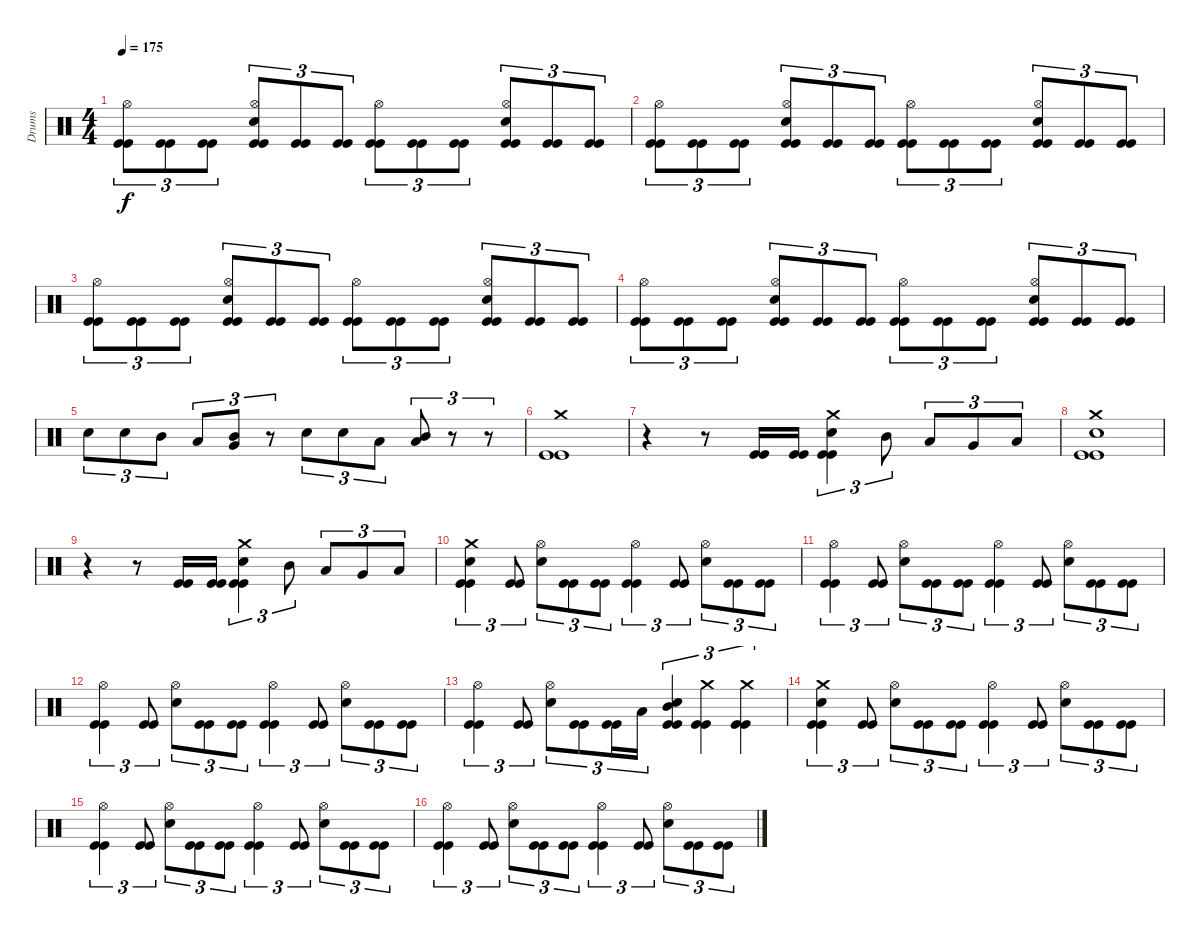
\track ("Drums" "Drums") {instrument percussion}
\staff {score}
\articulation defaults
\ts (4 4)
\tempo 175
\clef neutral
\ks c
("Kick (hit)" "Kick (hit)" "Hi-Hat (open)").8{tu (3 2) dy f} ("Kick (hit)" "Kick (hit)").8{tu (3 2)} ("Kick (hit)" "Kick (hit)").8{tu (3 2)} ("Kick (hit)" "Kick (hit)" "Snare (hit) 2" "Hi-Hat (open)").8{tu (3 2)} ("Kick (hit)" "Kick (hit)").8{tu (3 2)} ("Kick (hit)" "Kick (hit)").8{tu (3 2)} ("Kick (hit)" "Kick (hit)" "Hi-Hat (open)").8{tu (3 2)} ("Kick (hit)" "Kick (hit)").8{tu (3 2)} ("Kick (hit)" "Kick (hit)").8{tu (3 2)} ("Kick (hit)" "Kick (hit)" "Snare (hit) 2" "Hi-Hat (open)").8{tu (3 2)} ("Kick (hit)" "Kick (hit)").8{tu (3 2)} ("Kick (hit)" "Kick (hit)").8{tu (3 2)} |
("Kick (hit)" "Kick (hit)" "Hi-Hat (open)").8{tu (3 2)} ("Kick (hit)" "Kick (hit)").8{tu (3 2)} ("Kick (hit)" "Kick (hit)").8{tu (3 2)} ("Kick (hit)" "Kick (hit)" "Snare (hit) 2" "Hi-Hat (open)").8{tu (3 2)} ("Kick (hit)" "Kick (hit)").8{tu (3 2)} ("Kick (hit)" "Kick (hit)").8{tu (3 2)} ("Kick (hit)" "Kick (hit)" "Hi-Hat (open)").8{tu (3 2)} ("Kick (hit)" "Kick (hit)").8{tu (3 2)} ("Kick (hit)" "Kick (hit)").8{tu (3 2)} ("Kick (hit)" "Kick (hit)" "Snare (hit) 2" "Hi-Hat (open)").8{tu (3 2)} ("Kick (hit)" "Kick (hit)").8{tu (3 2)} ("Kick (hit)" "Kick (hit)").8{tu (3 2)} |
("Kick (hit)" "Kick (hit)" "Hi-Hat (open)").8{tu (3 2)} ("Kick (hit)" "Kick (hit)").8{tu (3 2)} ("Kick (hit)" "Kick (hit)").8{tu (3 2)} ("Kick (hit)" "Kick (hit)" "Snare (hit) 2" "Hi-Hat (open)").8{tu (3 2)} ("Kick (hit)" "Kick (hit)").8{tu (3 2)} ("Kick (hit)" "Kick (hit)").8{tu (3 2)} ("Kick (hit)" "Kick (hit)" "Hi-Hat (open)").8{tu (3 2)} ("Kick (hit)" "Kick (hit)").8{tu (3 2)} ("Kick (hit)" "Kick (hit)").8{tu (3 2)} ("Kick (hit)" "Kick (hit)" "Snare (hit) 2" "Hi-Hat (open)").8{tu (3 2)} ("Kick (hit)" "Kick (hit)").8{tu (3 2)} ("Kick (hit)" "Kick (hit)").8{tu (3 2)} |
("Kick (hit)" "Kick (hit)" "Hi-Hat (open)").8{tu (3 2)} ("Kick (hit)" "Kick (hit)").8{tu (3 2)} ("Kick (hit)" "Kick (hit)").8{tu (3 2)} ("Kick (hit)" "Kick (hit)" "Snare (hit) 2" "Hi-Hat (open)").8{tu (3 2)} ("Kick (hit)" "Kick (hit)").8{tu (3 2)} ("Kick (hit)" "Kick (hit)").8{tu (3 2)} ("Kick (hit)" "Kick (hit)" "Hi-Hat (open)").8{tu (3 2)} ("Kick (hit)" "Kick (hit)").8{tu (3 2)} ("Kick (hit)" "Kick (hit)").8{tu (3 2)} ("Kick (hit)" "Kick (hit)" "Snare (hit) 2" "Hi-Hat (open)").8{tu (3 2)} ("Kick (hit)" "Kick (hit)").8{tu (3 2)} ("Kick (hit)" "Kick (hit)").8{tu (3 2)} |
"Snare (hit) 2".8{tu (3 2)} "Snare (hit) 2".8{tu (3 2)} "Mid Tom (hit)".8{tu (3 2)} "Low Tom (hit)".8{tu (3 2)} ("Very Low Tom (hit)" "Mid Tom (hit)").8{tu (3 2)} r.8{tu (3 2)} "Snare (hit) 2".8{tu (3 2)} "Snare (hit) 2".8{tu (3 2)} "Low Tom (hit)".8{tu (3 2)} ("Low Floor Tom (hit)" "Mid Tom (hit)").8{tu (3 2)} r.8{tu (3 2)} r.8{tu (3 2)} |
("Crash medium (hit)" "Kick (hit)" "Kick (hit)").1 |
r.4 r.8 ("Kick (hit)" "Kick (hit)").16 ("Kick (hit)" "Kick (hit)").16 ("Kick (hit)" "Kick (hit)" "Snare (hit) 2" "Crash medium (hit)").4{tu (3 2)} "Mid Tom (hit)".8{tu (3 2)} "Low Tom (hit)".8{tu (3 2)} "Very Low Tom (hit)".8{tu (3 2)} "Low Floor Tom (hit)".8{tu (3 2)} |
("Kick (hit)" "Kick (hit)" "Snare (hit) 2" "Crash medium (hit)").1 |
r.4 r.8 ("Kick (hit)" "Kick (hit)").16 ("Kick (hit)" "Kick (hit)").16 ("Kick (hit)" "Kick (hit)" "Snare (hit) 2" "Crash medium (hit)").4{tu (3 2)} "Mid Tom (hit)".8{tu (3 2)} "Low Tom (hit)".8{tu (3 2)} "Very Low Tom (hit)".8{tu (3 2)} "Low Floor Tom (hit)".8{tu (3 2)} |
("Kick (hit)" "Kick (hit)" "Snare (hit) 2" "Crash medium (hit)").4{tu (3 2)} ("Kick (hit)" "Kick (hit)").8{tu (3 2)} ("Snare (hit) 2" "Hi-Hat (open)").8{tu (3 2)} ("Kick (hit)" "Kick (hit)").8{tu (3 2)} ("Kick (hit)" "Kick (hit)").8{tu (3 2)} ("Kick (hit)" "Kick (hit)" "Hi-Hat (open)").4{tu (3 2)} ("Kick (hit)" "Kick (hit)").8{tu (3 2)} ("Snare (hit) 2" "Hi-Hat (open)").8{tu (3 2)} ("Kick (hit)" "Kick (hit)").8{tu (3 2)} ("Kick (hit)" "Kick (hit)").8{tu (3 2)} |
("Kick (hit)" "Kick (hit)" "Hi-Hat (open)").4{tu (3 2)} ("Kick (hit)" "Kick (hit)").8{tu (3 2)} ("Snare (hit) 2" "Hi-Hat (open)").8{tu (3 2)} ("Kick (hit)" "Kick (hit)").8{tu (3 2)} ("Kick (hit)" "Kick (hit)").8{tu (3 2)} ("Kick (hit)" "Kick (hit)" "Hi-Hat (open)").4{tu (3 2)} ("Kick (hit)" "Kick (hit)").8{tu (3 2)} ("Snare (hit) 2" "Hi-Hat (open)").8{tu (3 2)} ("Kick (hit)" "Kick (hit)").8{tu (3 2)} ("Kick (hit)" "Kick (hit)").8{tu (3 2)} |
("Kick (hit)" "Kick (hit)" "Hi-Hat (open)").4{tu (3 2)} ("Kick (hit)" "Kick (hit)").8{tu (3 2)} ("Snare (hit) 2" "Hi-Hat (open)").8{tu (3 2)} ("Kick (hit)" "Kick (hit)").8{tu (3 2)} ("Kick (hit)" "Kick (hit)").8{tu (3 2)} ("Kick (hit)" "Kick (hit)" "Hi-Hat (open)").4{tu (3 2)} ("Kick (hit)" "Kick (hit)").8{tu (3 2)} ("Snare (hit) 2" "Hi-Hat (open)").8{tu (3 2)} ("Kick (hit)" "Kick (hit)").8{tu (3 2)} ("Kick (hit)" "Kick (hit)").8{tu (3 2)} |
("Kick (hit)" "Kick (hit)" "Hi-Hat (open)").4{tu (3 2)} ("Kick (hit)" "Kick (hit)").8{tu (3 2)} ("Snare (hit) 2" "Hi-Hat (open)").8{tu (3 2)} ("Kick (hit)" "Kick (hit)").8{tu (3 2)} ("Kick (hit)" "Kick (hit)").16{tu (3 2)} "Low Floor Tom (hit)".16{tu (3 2)} ("Kick (hit)" "Kick (hit)" "Mid Tom (hit)" "Snare (hit) 2").4{tu (3 2)} ("Kick (hit)" "Kick (hit)" "Crash medium (hit)").4{tu (3 2)} ("Kick (hit)" "Kick (hit)" "Crash medium (hit)").4{tu (3 2)} |
("Kick (hit)" "Kick (hit)" "Snare (hit) 2" "Crash medium (hit)").4{tu (3 2)} ("Kick (hit)" "Kick (hit)").8{tu (3 2)} ("Snare (hit) 2" "Hi-Hat (open)").8{tu (3 2)} ("Kick (hit)" "Kick (hit)").8{tu (3 2)} ("Kick (hit)" "Kick (hit)").8{tu (3 2)} ("Kick (hit)" "Kick (hit)" "Hi-Hat (open)").4{tu (3 2)} ("Kick (hit)" "Kick (hit)").8{tu (3 2)} ("Snare (hit) 2" "Hi-Hat (open)").8{tu (3 2)} ("Kick (hit)" "Kick (hit)").8{tu (3 2)} ("Kick (hit)" "Kick (hit)").8{tu (3 2)} |
("Kick (hit)" "Kick (hit)" "Hi-Hat (open)").4{tu (3 2)} ("Kick (hit)" "Kick (hit)").8{tu (3 2)} ("Snare (hit) 2" "Hi-Hat (open)").8{tu (3 2)} ("Kick (hit)" "Kick (hit)").8{tu (3 2)} ("Kick (hit)" "Kick (hit)").8{tu (3 2)} ("Kick (hit)" "Kick (hit)" "Hi-Hat (open)").4{tu (3 2)} ("Kick (hit)" "Kick (hit)").8{tu (3 2)} ("Snare (hit) 2" "Hi-Hat (open)").8{tu (3 2)} ("Kick (hit)" "Kick (hit)").8{tu (3 2)} ("Kick (hit)" "Kick (hit)").8{tu (3 2)} |
("Kick (hit)" "Kick (hit)" "Hi-Hat (open)").4{tu (3 2)} ("Kick (hit)" "Kick (hit)").8{tu (3 2)} ("Snare (hit) 2" "Hi-Hat (open)").8{tu (3 2)} ("Kick (hit)" "Kick (hit)").8{tu (3 2)} ("Kick (hit)" "Kick (hit)").8{tu (3 2)} ("Kick (hit)" "Kick (hit)" "Hi-Hat (open)").4{tu (3 2)} ("Kick (hit)" "Kick (hit)").8{tu (3 2)} ("Snare (hit) 2" "Hi-Hat (open)").8{tu (3 2)} ("Kick (hit)" "Kick (hit)").8{tu (3 2)} ("Kick (hit)" "Kick (hit)").8{tu (3 2)}
